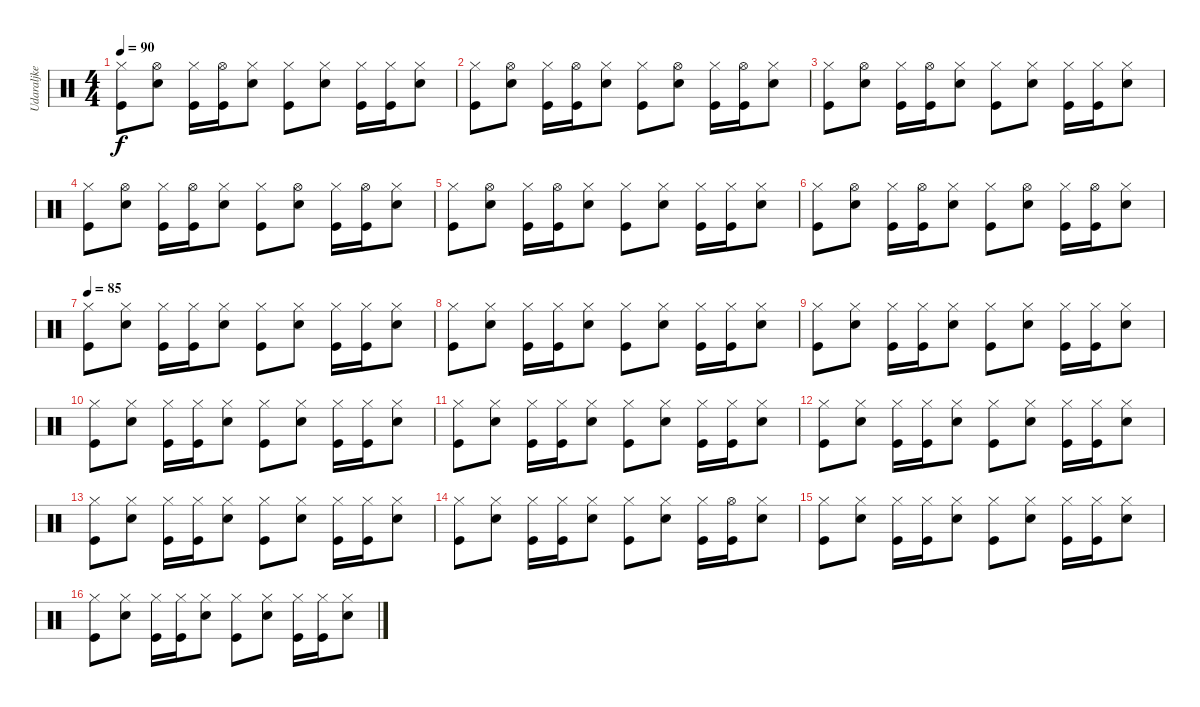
\track ("Udaraljke" "Udaraljke") {instrument percussion}
\staff {score}
\articulation defaults
\ts (4 4)
\tempo 90
\clef neutral
\ks c
("Kick (hit)" "Hi-Hat (closed)").8{dy f} ("Snare (hit) 2" "Hi-Hat (open)").8 ("Kick (hit)" "Hi-Hat (closed)").16 ("Kick (hit)" "Hi-Hat (open)").16 ("Snare (hit) 2" "Hi-Hat (closed)").8 ("Kick (hit)" "Hi-Hat (closed)").8 ("Snare (hit) 2" "Hi-Hat (closed)").8 ("Kick (hit)" "Hi-Hat (closed)").16 ("Kick (hit)" "Hi-Hat (closed)").16 ("Snare (hit) 2" "Hi-Hat (closed)").8 |
("Kick (hit)" "Hi-Hat (closed)").8 ("Snare (hit) 2" "Hi-Hat (open)").8 ("Kick (hit)" "Hi-Hat (closed)").16 ("Kick (hit)" "Hi-Hat (open)").16 ("Snare (hit) 2" "Hi-Hat (closed)").8 ("Kick (hit)" "Hi-Hat (closed)").8 ("Snare (hit) 2" "Hi-Hat (open)").8 ("Kick (hit)" "Hi-Hat (closed)").16 ("Kick (hit)" "Hi-Hat (open)").16 ("Snare (hit) 2" "Hi-Hat (closed)").8 |
("Kick (hit)" "Hi-Hat (closed)").8 ("Snare (hit) 2" "Hi-Hat (open)").8 ("Kick (hit)" "Hi-Hat (closed)").16 ("Kick (hit)" "Hi-Hat (open)").16 ("Snare (hit) 2" "Hi-Hat (closed)").8 ("Kick (hit)" "Hi-Hat (closed)").8 ("Snare (hit) 2" "Hi-Hat (closed)").8 ("Kick (hit)" "Hi-Hat (closed)").16 ("Kick (hit)" "Hi-Hat (closed)").16 ("Snare (hit) 2" "Hi-Hat (closed)").8 |
("Kick (hit)" "Hi-Hat (closed)").8 ("Snare (hit) 2" "Hi-Hat (open)").8 ("Kick (hit)" "Hi-Hat (closed)").16 ("Kick (hit)" "Hi-Hat (open)").16 ("Snare (hit) 2" "Hi-Hat (closed)").8 ("Kick (hit)" "Hi-Hat (closed)").8 ("Snare (hit) 2" "Hi-Hat (open)").8 ("Kick (hit)" "Hi-Hat (closed)").16 ("Kick (hit)" "Hi-Hat (open)").16 ("Snare (hit) 2" "Hi-Hat (closed)").8 |
("Kick (hit)" "Hi-Hat (closed)").8 ("Snare (hit) 2" "Hi-Hat (open)").8 ("Kick (hit)" "Hi-Hat (closed)").16 ("Kick (hit)" "Hi-Hat (open)").16 ("Snare (hit) 2" "Hi-Hat (closed)").8 ("Kick (hit)" "Hi-Hat (closed)").8 ("Snare (hit) 2" "Hi-Hat (closed)").8 ("Kick (hit)" "Hi-Hat (closed)").16 ("Kick (hit)" "Hi-Hat (closed)").16 ("Snare (hit) 2" "Hi-Hat (closed)").8 |
("Kick (hit)" "Hi-Hat (closed)").8 ("Snare (hit) 2" "Hi-Hat (open)").8 ("Kick (hit)" "Hi-Hat (closed)").16 ("Kick (hit)" "Hi-Hat (open)").16 ("Snare (hit) 2" "Hi-Hat (closed)").8 ("Kick (hit)" "Hi-Hat (closed)").8 ("Snare (hit) 2" "Hi-Hat (open)").8 ("Kick (hit)" "Hi-Hat (closed)").16 ("Kick (hit)" "Hi-Hat (open)").16 ("Snare (hit) 2" "Hi-Hat (closed)").8 |
\tempo 85
("Kick (hit)" "Hi-Hat (closed)").8 ("Snare (hit) 2" "Hi-Hat (closed)").8 ("Kick (hit)" "Hi-Hat (closed)").16 ("Kick (hit)" "Hi-Hat (closed)").16 ("Snare (hit) 2" "Hi-Hat (closed)").8 ("Kick (hit)" "Hi-Hat (closed)").8 ("Snare (hit) 2" "Hi-Hat (closed)").8 ("Kick (hit)" "Hi-Hat (closed)").16 ("Kick (hit)" "Hi-Hat (closed)").16 ("Snare (hit) 2" "Hi-Hat (closed)").8 |
("Kick (hit)" "Hi-Hat (closed)").8 ("Snare (hit) 2" "Hi-Hat (closed)").8 ("Kick (hit)" "Hi-Hat (closed)").16 ("Kick (hit)" "Hi-Hat (closed)").16 ("Snare (hit) 2" "Hi-Hat (closed)").8 ("Kick (hit)" "Hi-Hat (closed)").8 ("Snare (hit) 2" "Hi-Hat (closed)").8 ("Kick (hit)" "Hi-Hat (closed)").16 ("Kick (hit)" "Hi-Hat (closed)").16 ("Snare (hit) 2" "Hi-Hat (closed)").8 |
("Kick (hit)" "Hi-Hat (closed)").8 ("Snare (hit) 2" "Hi-Hat (closed)").8 ("Kick (hit)" "Hi-Hat (closed)").16 ("Kick (hit)" "Hi-Hat (closed)").16 ("Snare (hit) 2" "Hi-Hat (closed)").8 ("Kick (hit)" "Hi-Hat (closed)").8 ("Snare (hit) 2" "Hi-Hat (closed)").8 ("Kick (hit)" "Hi-Hat (closed)").16 ("Kick (hit)" "Hi-Hat (closed)").16 ("Snare (hit) 2" "Hi-Hat (closed)").8 |
("Kick (hit)" "Hi-Hat (closed)").8 ("Snare (hit) 2" "Hi-Hat (closed)").8 ("Kick (hit)" "Hi-Hat (closed)").16 ("Kick (hit)" "Hi-Hat (closed)").16 ("Snare (hit) 2" "Hi-Hat (closed)").8 ("Kick (hit)" "Hi-Hat (closed)").8 ("Snare (hit) 2" "Hi-Hat (closed)").8 ("Kick (hit)" "Hi-Hat (closed)").16 ("Kick (hit)" "Hi-Hat (closed)").16 ("Snare (hit) 2" "Hi-Hat (closed)").8 |
("Kick (hit)" "Hi-Hat (closed)").8 ("Snare (hit) 2" "Hi-Hat (closed)").8 ("Kick (hit)" "Hi-Hat (closed)").16 ("Kick (hit)" "Hi-Hat (closed)").16 ("Snare (hit) 2" "Hi-Hat (closed)").8 ("Kick (hit)" "Hi-Hat (closed)").8 ("Snare (hit) 2" "Hi-Hat (closed)").8 ("Kick (hit)" "Hi-Hat (closed)").16 ("Kick (hit)" "Hi-Hat (closed)").16 ("Snare (hit) 2" "Hi-Hat (closed)").8 |
("Kick (hit)" "Hi-Hat (closed)").8 ("Snare (hit) 2" "Hi-Hat (closed)").8 ("Kick (hit)" "Hi-Hat (closed)").16 ("Kick (hit)" "Hi-Hat (closed)").16 ("Snare (hit) 2" "Hi-Hat (closed)").8 ("Kick (hit)" "Hi-Hat (closed)").8 ("Snare (hit) 2" "Hi-Hat (closed)").8 ("Kick (hit)" "Hi-Hat (closed)").16 ("Kick (hit)" "Hi-Hat (closed)").16 ("Snare (hit) 2" "Hi-Hat (closed)").8 |
("Kick (hit)" "Hi-Hat (closed)").8 ("Snare (hit) 2" "Hi-Hat (closed)").8 ("Kick (hit)" "Hi-Hat (closed)").16 ("Kick (hit)" "Hi-Hat (closed)").16 ("Snare (hit) 2" "Hi-Hat (closed)").8 ("Kick (hit)" "Hi-Hat (closed)").8 ("Snare (hit) 2" "Hi-Hat (closed)").8 ("Kick (hit)" "Hi-Hat (closed)").16 ("Kick (hit)" "Hi-Hat (closed)").16 ("Snare (hit) 2" "Hi-Hat (closed)").8 |
("Kick (hit)" "Hi-Hat (closed)").8 ("Snare (hit) 2" "Hi-Hat (closed)").8 ("Kick (hit)" "Hi-Hat (closed)").16 ("Kick (hit)" "Hi-Hat (closed)").16 ("Snare (hit) 2" "Hi-Hat (closed)").8 ("Kick (hit)" "Hi-Hat (closed)").8 ("Snare (hit) 2" "Hi-Hat (closed)").8 ("Kick (hit)" "Hi-Hat (closed)").16 ("Kick (hit)" "Hi-Hat (open)").16 ("Snare (hit) 2" "Hi-Hat (closed)").8 |
("Kick (hit)" "Hi-Hat (closed)").8 ("Snare (hit) 2" "Hi-Hat (closed)").8 ("Kick (hit)" "Hi-Hat (closed)").16 ("Kick (hit)" "Hi-Hat (closed)").16 ("Snare (hit) 2" "Hi-Hat (closed)").8 ("Kick (hit)" "Hi-Hat (closed)").8 ("Snare (hit) 2" "Hi-Hat (closed)").8 ("Kick (hit)" "Hi-Hat (closed)").16 ("Kick (hit)" "Hi-Hat (closed)").16 ("Snare (hit) 2" "Hi-Hat (closed)").8 |
("Kick (hit)" "Hi-Hat (closed)").8 ("Snare (hit) 2" "Hi-Hat (closed)").8 ("Kick (hit)" "Hi-Hat (closed)").16 ("Kick (hit)" "Hi-Hat (closed)").16 ("Snare (hit) 2" "Hi-Hat (closed)").8 ("Kick (hit)" "Hi-Hat (closed)").8 ("Snare (hit) 2" "Hi-Hat (closed)").8 ("Kick (hit)" "Hi-Hat (closed)").16 ("Kick (hit)" "Hi-Hat (closed)").16 ("Snare (hit) 2" "Hi-Hat (closed)").8
